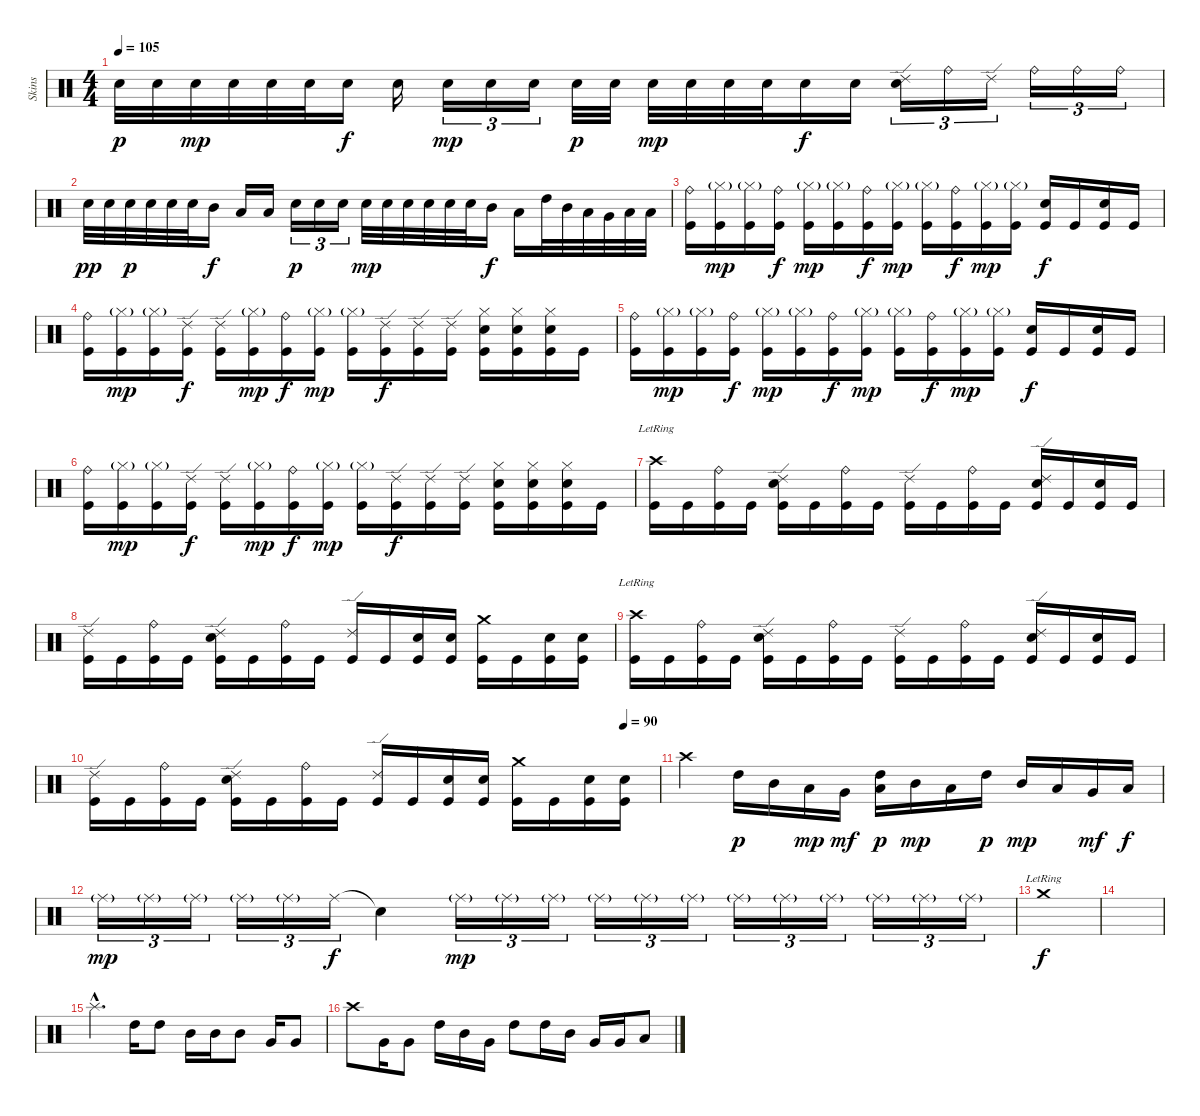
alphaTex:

\track ("Skins" "Skins") {instrument percussion}
\staff {score}
\articulation defaults
\ts (4 4)
\tempo 105
\clef neutral
\ks c "Snare (hit) 2".32{dy p} "Snare (hit) 2".32 "Snare (hit) 2".32{dy mp} "Snare (hit) 2".32 "Snare (hit) 2".32 "Snare (hit) 2".32 "Electric Snare (hit)".16{dy f} "Electric Snare (hit)".16 "Snare (hit) 2".16{tu (3 2) dy mp} "Snare (hit) 2".16{tu (3 2)} "Snare (hit) 2".16{tu (3 2)} "Snare (hit) 2".32{dy p} "Snare (hit) 2".32 "Snare (hit) 2".32{dy mp} "Snare (hit) 2".32 "Snare (hit) 2".32 "Snare (hit) 2".32 "Electric Snare (hit)".16{dy f} "Electric Snare (hit)".16
("Ride (edge) 2" "Electric Snare (hit)").16{tu (3 2)} "Ride (bell)".16{tu (3 2)} "Ride (edge) 2".16{tu (3 2)} "Ride (bell)".16{tu (3 2)} "Ride (bell)".16{tu (3 2)} "Ride (bell)".16{tu (3 2)} |
"Electric Snare (hit)".32{dy pp} "Electric Snare (hit)".32 "Electric Snare (hit)".32{dy p} "Electric Snare (hit)".32 "Electric Snare (hit)".32 "Electric Snare (hit)".32 "Mid Tom (hit)".16{dy f} "Low Tom (hit)".16 "Low Floor Tom (hit)".16 "Electric Snare (hit)".16{tu (3 2) dy p} "Electric Snare (hit)".16{tu (3 2)} "Electric Snare (hit)".16{tu (3 2)} "Electric Snare (hit)".32{dy mp} "Electric Snare (hit)".32 "Electric Snare (hit)".32 "Electric Snare (hit)".32 "Electric Snare (hit)".32 "Electric Snare (hit)".32 "Mid Tom (hit)".16{dy f} "Low Tom (hit)".16 "High Tom (hit)".32 "Mid Tom (hit)".32 "Low Tom (hit)".32 "Very Low Tom (hit)".32 "Low Floor Tom (hit)".32 "Low Floor Tom (hit)".32 |
("Ride (bell)" "Kick (hit)").16 ("Hi-Hat (closed)"{g} "Kick (hit)").16{dy mp} ("Hi-Hat (closed)"{g} "Kick (hit)").16 ("Ride (bell)" "Kick (hit)").16{dy f} ("Hi-Hat (closed)"{g} "Kick (hit)").16{dy mp} ("Hi-Hat (closed)"{g} "Kick (hit)").16 ("Ride (bell)" "Kick (hit)").16{dy f} ("Hi-Hat (closed)"{g} "Kick (hit)").16{dy mp} ("Hi-Hat (closed)"{g} "Kick (hit)").16 ("Ride (bell)" "Kick (hit)").16{dy f} ("Hi-Hat (closed)"{g} "Kick (hit)").16{dy mp} ("Hi-Hat (closed)"{g} "Kick (hit)").16 ("Electric Snare (hit)" "Kick (hit)").16{dy f} "Kick (hit)".16 ("Electric Snare (hit)" "Kick (hit)").16 "Kick (hit)".16 |
("Ride (bell)" "Kick (hit)").16 ("Hi-Hat (closed)"{g} "Kick (hit)").16{dy mp} ("Hi-Hat (closed)"{g} "Kick (hit)").16 ("Ride (edge) 2" "Kick (hit)").16{dy f} ("Ride (edge) 2" "Kick (hit)").16 ("Hi-Hat (closed)"{g} "Kick (hit)").16{dy mp} ("Ride (bell)" "Kick (hit)").16{dy f} ("Hi-Hat (closed)"{g} "Kick (hit)").16{dy mp} ("Hi-Hat (closed)"{g} "Kick (hit)").16 ("Ride (edge) 2" "Kick (hit)").16{dy f} ("Ride (edge) 2" "Kick (hit)").16 ("Ride (edge) 2" "Kick (hit)").16 ("Electric Snare (hit)" "Hi-Hat (closed)" "Kick (hit)").16 ("Electric Snare (hit)" "Hi-Hat (closed)" "Kick (hit)").16 ("Electric Snare (hit)" "Hi-Hat (closed)" "Kick (hit)").16 "Kick (hit)".16 |
("Ride (bell)" "Kick (hit)").16 ("Hi-Hat (closed)"{g} "Kick (hit)").16{dy mp} ("Hi-Hat (closed)"{g} "Kick (hit)").16 ("Ride (bell)" "Kick (hit)").16{dy f} ("Hi-Hat (closed)"{g} "Kick (hit)").16{dy mp} ("Hi-Hat (closed)"{g} "Kick (hit)").16 ("Ride (bell)" "Kick (hit)").16{dy f} ("Hi-Hat (closed)"{g} "Kick (hit)").16{dy mp} ("Hi-Hat (closed)"{g} "Kick (hit)").16 ("Ride (bell)" "Kick (hit)").16{dy f} ("Hi-Hat (closed)"{g} "Kick (hit)").16{dy mp} ("Hi-Hat (closed)"{g} "Kick (hit)").16 ("Electric Snare (hit)" "Kick (hit)").16{dy f} "Kick (hit)".16 ("Electric Snare (hit)" "Kick (hit)").16 "Kick (hit)".16 |
("Ride (bell)" "Kick (hit)").16 ("Hi-Hat (closed)"{g} "Kick (hit)").16{dy mp} ("Hi-Hat (closed)"{g} "Kick (hit)").16 ("Ride (edge) 2" "Kick (hit)").16{dy f} ("Ride (edge) 2" "Kick (hit)").16 ("Hi-Hat (closed)"{g} "Kick (hit)").16{dy mp} ("Ride (bell)" "Kick (hit)").16{dy f} ("Hi-Hat (closed)"{g} "Kick (hit)").16{dy mp} ("Hi-Hat (closed)"{g} "Kick (hit)").16 ("Ride (edge) 2" "Kick (hit)").16{dy f} ("Ride (edge) 2" "Kick (hit)").16 ("Ride (edge) 2" "Kick (hit)").16 ("Electric Snare (hit)" "Hi-Hat (closed)" "Kick (hit)").16 ("Electric Snare (hit)" "Hi-Hat (closed)" "Kick (hit)").16 ("Electric Snare (hit)" "Hi-Hat (closed)" "Kick (hit)").16 "Kick (hit)".16 |
("Crash high (hit)"{lr} "Kick (hit)").16 "Kick (hit)".16 ("Ride (bell)" "Kick (hit)").16 "Kick (hit)".16 ("Ride (edge) 2" "Electric Snare (hit)" "Kick (hit)").16 "Kick (hit)".16 ("Ride (bell)" "Kick (hit)").16 "Kick (hit)".16 ("Ride (edge) 2" "Kick (hit)").16 "Kick (hit)".16 ("Ride (bell)" "Kick (hit)").16 "Kick (hit)".16 ("Ride (edge) 2" "Electric Snare (hit)" "Kick (hit)").16 "Kick (hit)".16 ("Electric Snare (hit)" "Kick (hit)").16 "Kick (hit)".16 |
("Ride (edge) 2" "Kick (hit)").16 "Kick (hit)".16 ("Ride (bell)" "Kick (hit)").16 "Kick (hit)".16 ("Ride (edge) 2" "Electric Snare (hit)" "Kick (hit)").16 "Kick (hit)".16 ("Ride (bell)" "Kick (hit)").16 "Kick (hit)".16 ("Ride (edge) 2" "Kick (hit)").16 "Kick (hit)".16 ("Electric Snare (hit)" "Kick (hit)").16 ("Electric Snare (hit)" "Kick (hit)").16 ("Crash medium (hit)" "Kick (hit)").16 "Kick (hit)".16 ("Electric Snare (hit)" "Kick (hit)").16 ("Electric Snare (hit)" "Kick (hit)").16 |
("Crash high (hit)"{lr} "Kick (hit)").16 "Kick (hit)".16 ("Ride (bell)" "Kick (hit)").16 "Kick (hit)".16 ("Ride (edge) 2" "Electric Snare (hit)" "Kick (hit)").16 "Kick (hit)".16 ("Ride (bell)" "Kick (hit)").16 "Kick (hit)".16 ("Ride (edge) 2" "Kick (hit)").16 "Kick (hit)".16 ("Ride (bell)" "Kick (hit)").16 "Kick (hit)".16 ("Ride (edge) 2" "Electric Snare (hit)" "Kick (hit)").16 "Kick (hit)".16 ("Electric Snare (hit)" "Kick (hit)").16 "Kick (hit)".16 |
\tempo (90 0.9375)
("Ride (edge) 2" "Kick (hit)").16 "Kick (hit)".16 ("Ride (bell)" "Kick (hit)").16 "Kick (hit)".16 ("Ride (edge) 2" "Electric Snare (hit)" "Kick (hit)").16 "Kick (hit)".16 ("Ride (bell)" "Kick (hit)").16 "Kick (hit)".16 ("Ride (edge) 2" "Kick (hit)").16 "Kick (hit)".16 ("Electric Snare (hit)" "Kick (hit)").16 ("Electric Snare (hit)" "Kick (hit)").16 ("Crash medium (hit)" "Kick (hit)").16 "Kick (hit)".16 ("Electric Snare (hit)" "Kick (hit)").16 ("Electric Snare (hit)" "Kick (hit)").16 |
"Crash high (hit)".4 "High Tom (hit)".16{dy p} "Mid Tom (hit)".16 "Low Tom (hit)".16{dy mp} "Very Low Tom (hit)".16{dy mf} ("High Tom (hit)" "Low Floor Tom (hit)").16{dy p} "Mid Tom (hit)".16{dy mp} "Low Tom (hit)".16 "High Tom (hit)".16{dy p} "Mid Tom (hit)".16{dy mp} "Low Tom (hit)".16 "Very Low Tom (hit)".16{dy mf} "Low Floor Tom (hit)".16{dy f} |
"Ride (middle)"{g}.16{tu (3 2) dy mp} "Ride (middle)"{g}.16{tu (3 2)} "Ride (middle)"{g}.16{tu (3 2)} "Ride (middle)"{g}.16{tu (3 2)} "Ride (middle)"{g}.16{tu (3 2)} "Ride (middle)".16{tu (3 2) dy f} "Snare (hit)"{t}.4 "Ride (middle)"{g}.16{tu (3 2) dy mp} "Ride (middle)"{g}.16{tu (3 2)} "Ride (middle)"{g}.16{tu (3 2)} "Ride (middle)"{g}.16{tu (3 2)} "Ride (middle)"{g}.16{tu (3 2)} "Ride (middle)"{g}.16{tu (3 2)} "Ride (middle)"{g}.16{tu (3 2)} "Ride (middle)"{g}.16{tu (3 2)} "Ride (middle)"{g}.16{tu (3 2)} "Ride (middle)"{g}.16{tu (3 2)} "Ride (middle)"{g}.16{tu (3 2)} "Ride (middle)"{g}.16{tu (3 2)} |
"Crash medium (hit)"{lr}.1{dy f} |
|
"Splash (hit)"{hac}.4{d} "High Tom (hit)".16 "High Tom (hit)".8 "Mid Tom (hit)".16 "Mid Tom (hit)".16 "Mid Tom (hit)".8 "Very Low Tom (hit)".16 "Very Low Tom (hit)".8 |
"Crash high (hit)".8 "Very Low Tom (hit)".16 "Very Low Tom (hit)".8 "High Tom (hit)".16 "Mid Tom (hit)".16 "Very Low Tom (hit)".16 "High Tom (hit)".8 "High Tom (hit)".16 "Mid Tom (hit)".16 "Very Low Tom (hit)".16 "Very Low Tom (hit)".16 "Low Floor Tom (hit)".8
